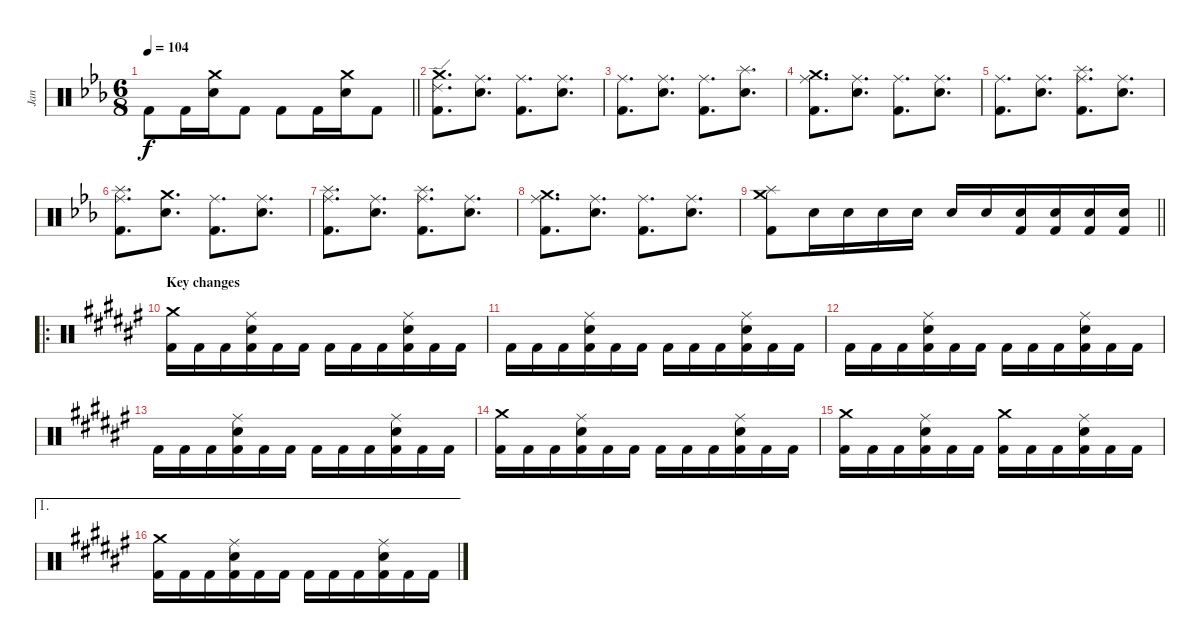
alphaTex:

\track ("Jan" "Jan") {instrument percussion}
\staff {score}
\articulation defaults
\ts (6 8)
\tempo 104
\clef neutral
\barLineRight lightlight
\ks eb "Kick (hit) 2".8{dy f} "Kick (hit) 2".16
("Crash medium (hit)" "Snare (hit) 2").16 "Kick (hit) 2".8 "Kick (hit) 2".8 "Kick (hit) 2".16 ("Crash medium (hit)" "Snare (hit) 2").16 "Kick (hit) 2".8 |
("Ride (edge) 2" "Crash medium (hit)" "Kick (hit) 2").8{d} ("Snare (hit) 2" "Ride (middle)").8{d} ("Ride (middle)" "Kick (hit) 2").8{d} ("Snare (hit) 2" "Ride (middle)").8{d} |
("Ride (middle)" "Kick (hit) 2").8{d} ("Snare (hit) 2" "Ride (middle)").8{d} ("Ride (middle)" "Kick (hit) 2").8{d} ("Splash (hit)" "Snare (hit) 2").8{d} |
("Crash medium (hit)" "Ride (middle)" "Kick (hit) 2").8{d} ("Snare (hit) 2" "Ride (middle)").8{d} ("Ride (middle)" "Kick (hit) 2").8{d} ("Snare (hit) 2" "Ride (middle)").8{d} |
("Ride (middle)" "Kick (hit) 2").8{d} ("Snare (hit) 2" "Ride (middle)").8{d} ("Splash (hit)" "Ride (middle)" "Kick (hit) 2").8{d} ("Snare (hit) 2" "Ride (middle)").8{d} |
("Splash (hit)" "Ride (middle)" "Kick (hit) 2").8{d} ("Crash medium (hit)" "Snare (hit) 2").8{d} ("Ride (middle)" "Kick (hit) 2").8{d} ("Snare (hit) 2" "Ride (middle)").8{d} |
("Splash (hit)" "Ride (middle)" "Kick (hit) 2").8{d} ("Snare (hit) 2" "Ride (middle)").8{d} ("Splash (hit)" "Ride (middle)" "Kick (hit) 2").8{d} ("Snare (hit) 2" "Ride (middle)").8{d} |
("Crash medium (hit)" "Ride (middle)" "Kick (hit) 2").8{d} ("Snare (hit) 2" "Ride (middle)").8{d} ("Ride (middle)" "Kick (hit) 2").8{d} ("Snare (hit) 2" "Ride (middle)").8{d} |
\barLineRight lightlight
("Crash medium (hit)" "Splash (hit)" "Kick (hit) 2").8 "Snare (hit) 2".16 "Snare (hit) 2".16 "Snare (hit) 2".16 "Snare (hit) 2".16 "Snare (hit) 2".16 "Snare (hit) 2".16 ("Snare (hit) 2" "Kick (hit) 2").16 ("Snare (hit) 2" "Kick (hit) 2").16 ("Snare (hit) 2" "Kick (hit) 2").16 ("Snare (hit) 2" "Kick (hit) 2").16 |
\ro
\section ("" "Key changes")
\ks f#
("Crash medium (hit)" "Kick (hit) 2").16 "Kick (hit) 2".16 "Kick (hit) 2".16 ("Ride (middle)" "Snare (hit) 2" "Kick (hit) 2").16 "Kick (hit) 2".16 "Kick (hit) 2".16 "Kick (hit) 2".16 "Kick (hit) 2".16 "Kick (hit) 2".16 ("Ride (middle)" "Snare (hit) 2" "Kick (hit) 2").16 "Kick (hit) 2".16 "Kick (hit) 2".16 |
"Kick (hit) 2".16 "Kick (hit) 2".16 "Kick (hit) 2".16 ("Ride (middle)" "Snare (hit) 2" "Kick (hit) 2").16 "Kick (hit) 2".16 "Kick (hit) 2".16 "Kick (hit) 2".16 "Kick (hit) 2".16 "Kick (hit) 2".16 ("Ride (middle)" "Snare (hit) 2" "Kick (hit) 2").16 "Kick (hit) 2".16 "Kick (hit) 2".16 |
"Kick (hit) 2".16 "Kick (hit) 2".16 "Kick (hit) 2".16 ("Ride (middle)" "Snare (hit) 2" "Kick (hit) 2").16 "Kick (hit) 2".16 "Kick (hit) 2".16 "Kick (hit) 2".16 "Kick (hit) 2".16 "Kick (hit) 2".16 ("Ride (middle)" "Snare (hit) 2" "Kick (hit) 2").16 "Kick (hit) 2".16 "Kick (hit) 2".16 |
"Kick (hit) 2".16 "Kick (hit) 2".16 "Kick (hit) 2".16 ("Ride (middle)" "Snare (hit) 2" "Kick (hit) 2").16 "Kick (hit) 2".16 "Kick (hit) 2".16 "Kick (hit) 2".16 "Kick (hit) 2".16 "Kick (hit) 2".16 ("Ride (middle)" "Snare (hit) 2" "Kick (hit) 2").16 "Kick (hit) 2".16 "Kick (hit) 2".16 |
("Crash medium (hit)" "Kick (hit) 2").16 "Kick (hit) 2".16 "Kick (hit) 2".16 ("Ride (middle)" "Snare (hit) 2" "Kick (hit) 2").16 "Kick (hit) 2".16 "Kick (hit) 2".16 "Kick (hit) 2".16 "Kick (hit) 2".16 "Kick (hit) 2".16 ("Ride (middle)" "Snare (hit) 2" "Kick (hit) 2").16 "Kick (hit) 2".16 "Kick (hit) 2".16 |
("Crash medium (hit)" "Kick (hit) 2").16 "Kick (hit) 2".16 "Kick (hit) 2".16 ("Ride (middle)" "Snare (hit) 2" "Kick (hit) 2").16 "Kick (hit) 2".16 "Kick (hit) 2".16 ("Crash medium (hit)" "Kick (hit) 2").16 "Kick (hit) 2".16 "Kick (hit) 2".16 ("Ride (middle)" "Snare (hit) 2" "Kick (hit) 2").16 "Kick (hit) 2".16 "Kick (hit) 2".16 |
\ae 1
("Crash medium (hit)" "Kick (hit) 2").16 "Kick (hit) 2".16 "Kick (hit) 2".16 ("Ride (middle)" "Snare (hit) 2" "Kick (hit) 2").16 "Kick (hit) 2".16 "Kick (hit) 2".16 "Kick (hit) 2".16 "Kick (hit) 2".16 "Kick (hit) 2".16 ("Ride (middle)" "Snare (hit) 2" "Kick (hit) 2").16 "Kick (hit) 2".16 "Kick (hit) 2".16
